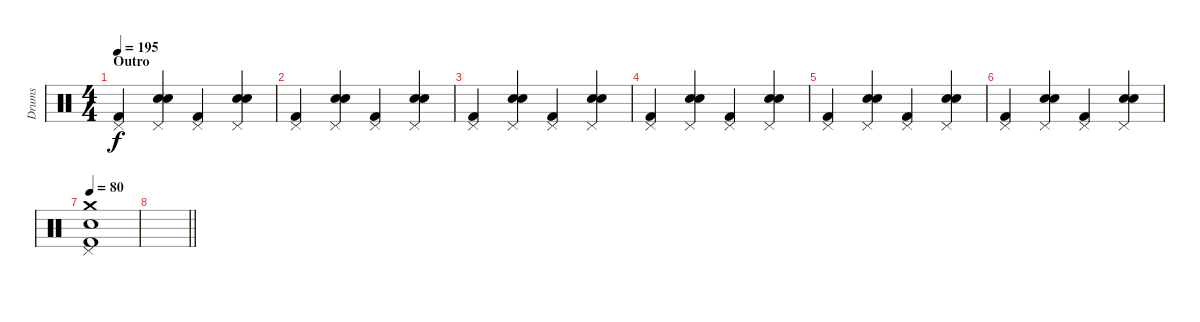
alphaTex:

\track ("Drums" "Drums") {instrument percussion}
\staff {score}
\articulation defaults
\ts (4 4)
\section ("" "Outro")
\tempo 195
\clef neutral
\ks c
("Kick (hit) 2" "Pedal Hi-Hat (hit)").4{dy f} ("Snare (hit) 2" "Electric Snare (hit)" "Pedal Hi-Hat (hit)").4 ("Kick (hit) 2" "Pedal Hi-Hat (hit)").4 ("Snare (hit) 2" "Electric Snare (hit)" "Pedal Hi-Hat (hit)").4 |
("Kick (hit) 2" "Pedal Hi-Hat (hit)").4 ("Snare (hit) 2" "Electric Snare (hit)" "Pedal Hi-Hat (hit)").4 ("Kick (hit) 2" "Pedal Hi-Hat (hit)").4 ("Snare (hit) 2" "Electric Snare (hit)" "Pedal Hi-Hat (hit)").4 |
("Kick (hit) 2" "Pedal Hi-Hat (hit)").4 ("Snare (hit) 2" "Electric Snare (hit)" "Pedal Hi-Hat (hit)").4 ("Kick (hit) 2" "Pedal Hi-Hat (hit)").4 ("Snare (hit) 2" "Electric Snare (hit)" "Pedal Hi-Hat (hit)").4 |
("Kick (hit) 2" "Pedal Hi-Hat (hit)").4 ("Snare (hit) 2" "Electric Snare (hit)" "Pedal Hi-Hat (hit)").4 ("Kick (hit) 2" "Pedal Hi-Hat (hit)").4 ("Snare (hit) 2" "Electric Snare (hit)" "Pedal Hi-Hat (hit)").4 |
("Kick (hit) 2" "Pedal Hi-Hat (hit)").4 ("Snare (hit) 2" "Electric Snare (hit)" "Pedal Hi-Hat (hit)").4 ("Kick (hit) 2" "Pedal Hi-Hat (hit)").4 ("Snare (hit) 2" "Electric Snare (hit)" "Pedal Hi-Hat (hit)").4 |
("Kick (hit) 2" "Pedal Hi-Hat (hit)").4 ("Snare (hit) 2" "Electric Snare (hit)" "Pedal Hi-Hat (hit)").4 ("Kick (hit) 2" "Pedal Hi-Hat (hit)").4 ("Snare (hit) 2" "Electric Snare (hit)" "Pedal Hi-Hat (hit)").4 |
\tempo 80
("Kick (hit) 2" "Electric Snare (hit)" "Crash medium (hit)" "Pedal Hi-Hat (hit)").1 |
\barLineRight lightlight
